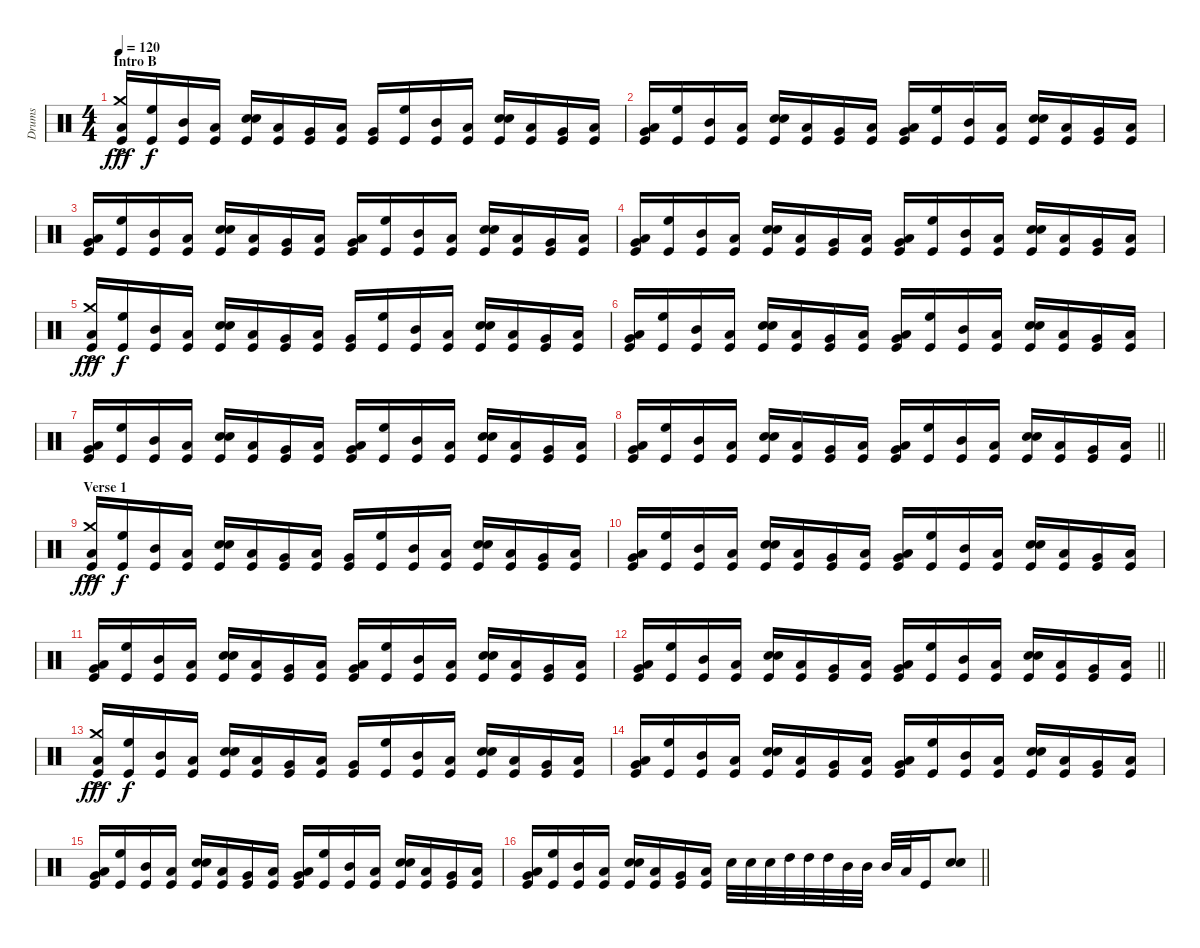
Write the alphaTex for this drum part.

\track ("Drums" "Drums") {instrument percussion}
\staff {score}
\articulation defaults
\ts (4 4)
\section ("" "Intro B")
\tempo 120
\clef neutral
\ks c
("Kick (hit)" "Crash medium (hit)"{ac} "Low Floor Tom (hit)").16{dy fff} ("Kick (hit)" "High Floor Tom (hit)").16{dy f} ("Kick (hit)" "Mid Tom (hit)").16 ("Kick (hit)" "Low Tom (hit)").16 ("Kick (hit)" "Snare (hit) 2" "Snare (hit) 2").16 ("Kick (hit)" "Low Floor Tom (hit)").16 ("Kick (hit)" "Very Low Tom (hit)").16 ("Kick (hit)" "Low Floor Tom (hit)").16 ("Kick (hit)" "Very Low Tom (hit)").16 ("Kick (hit)" "High Floor Tom (hit)").16 ("Kick (hit)" "Mid Tom (hit)").16 ("Kick (hit)" "Low Tom (hit)").16 ("Kick (hit)" "Snare (hit) 2" "Snare (hit) 2").16 ("Kick (hit)" "Low Floor Tom (hit)").16 ("Kick (hit)" "Very Low Tom (hit)").16 ("Kick (hit)" "Low Floor Tom (hit)").16 |
("Kick (hit)" "Very Low Tom (hit)" "Low Floor Tom (hit)").16 ("Kick (hit)" "High Floor Tom (hit)").16 ("Kick (hit)" "Mid Tom (hit)").16 ("Kick (hit)" "Low Tom (hit)").16 ("Kick (hit)" "Snare (hit) 2" "Snare (hit) 2").16 ("Kick (hit)" "Low Floor Tom (hit)").16 ("Kick (hit)" "Very Low Tom (hit)").16 ("Kick (hit)" "Low Floor Tom (hit)").16 ("Kick (hit)" "Very Low Tom (hit)" "Low Floor Tom (hit)").16 ("Kick (hit)" "High Floor Tom (hit)").16 ("Kick (hit)" "Mid Tom (hit)").16 ("Kick (hit)" "Low Tom (hit)").16 ("Kick (hit)" "Snare (hit) 2" "Snare (hit) 2").16 ("Kick (hit)" "Low Floor Tom (hit)").16 ("Kick (hit)" "Very Low Tom (hit)").16 ("Kick (hit)" "Low Floor Tom (hit)").16 |
("Kick (hit)" "Very Low Tom (hit)" "Low Floor Tom (hit)").16 ("Kick (hit)" "High Floor Tom (hit)").16 ("Kick (hit)" "Mid Tom (hit)").16 ("Kick (hit)" "Low Tom (hit)").16 ("Kick (hit)" "Snare (hit) 2" "Snare (hit) 2").16 ("Kick (hit)" "Low Floor Tom (hit)").16 ("Kick (hit)" "Very Low Tom (hit)").16 ("Kick (hit)" "Low Floor Tom (hit)").16 ("Kick (hit)" "Very Low Tom (hit)" "Low Floor Tom (hit)").16 ("Kick (hit)" "High Floor Tom (hit)").16 ("Kick (hit)" "Mid Tom (hit)").16 ("Kick (hit)" "Low Tom (hit)").16 ("Kick (hit)" "Snare (hit) 2" "Snare (hit) 2").16 ("Kick (hit)" "Low Floor Tom (hit)").16 ("Kick (hit)" "Very Low Tom (hit)").16 ("Kick (hit)" "Low Floor Tom (hit)").16 |
("Kick (hit)" "Very Low Tom (hit)" "Low Floor Tom (hit)").16 ("Kick (hit)" "High Floor Tom (hit)").16 ("Kick (hit)" "Mid Tom (hit)").16 ("Kick (hit)" "Low Tom (hit)").16 ("Kick (hit)" "Snare (hit) 2" "Snare (hit) 2").16 ("Kick (hit)" "Low Floor Tom (hit)").16 ("Kick (hit)" "Very Low Tom (hit)").16 ("Kick (hit)" "Low Floor Tom (hit)").16 ("Kick (hit)" "Very Low Tom (hit)" "Low Floor Tom (hit)").16 ("Kick (hit)" "High Floor Tom (hit)").16 ("Kick (hit)" "Mid Tom (hit)").16 ("Kick (hit)" "Low Tom (hit)").16 ("Kick (hit)" "Snare (hit) 2" "Snare (hit) 2").16 ("Kick (hit)" "Low Floor Tom (hit)").16 ("Kick (hit)" "Very Low Tom (hit)").16 ("Kick (hit)" "Low Floor Tom (hit)").16 |
("Kick (hit)" "Crash medium (hit)"{ac} "Low Floor Tom (hit)").16{dy fff} ("Kick (hit)" "High Floor Tom (hit)").16{dy f} ("Kick (hit)" "Mid Tom (hit)").16 ("Kick (hit)" "Low Tom (hit)").16 ("Kick (hit)" "Snare (hit) 2" "Snare (hit) 2").16 ("Kick (hit)" "Low Floor Tom (hit)").16 ("Kick (hit)" "Very Low Tom (hit)").16 ("Kick (hit)" "Low Floor Tom (hit)").16 ("Kick (hit)" "Very Low Tom (hit)").16 ("Kick (hit)" "High Floor Tom (hit)").16 ("Kick (hit)" "Mid Tom (hit)").16 ("Kick (hit)" "Low Tom (hit)").16 ("Kick (hit)" "Snare (hit) 2" "Snare (hit) 2").16 ("Kick (hit)" "Low Floor Tom (hit)").16 ("Kick (hit)" "Very Low Tom (hit)").16 ("Kick (hit)" "Low Floor Tom (hit)").16 |
("Kick (hit)" "Very Low Tom (hit)" "Low Floor Tom (hit)").16 ("Kick (hit)" "High Floor Tom (hit)").16 ("Kick (hit)" "Mid Tom (hit)").16 ("Kick (hit)" "Low Tom (hit)").16 ("Kick (hit)" "Snare (hit) 2" "Snare (hit) 2").16 ("Kick (hit)" "Low Floor Tom (hit)").16 ("Kick (hit)" "Very Low Tom (hit)").16 ("Kick (hit)" "Low Floor Tom (hit)").16 ("Kick (hit)" "Very Low Tom (hit)" "Low Floor Tom (hit)").16 ("Kick (hit)" "High Floor Tom (hit)").16 ("Kick (hit)" "Mid Tom (hit)").16 ("Kick (hit)" "Low Tom (hit)").16 ("Kick (hit)" "Snare (hit) 2" "Snare (hit) 2").16 ("Kick (hit)" "Low Floor Tom (hit)").16 ("Kick (hit)" "Very Low Tom (hit)").16 ("Kick (hit)" "Low Floor Tom (hit)").16 |
("Kick (hit)" "Very Low Tom (hit)" "Low Floor Tom (hit)").16 ("Kick (hit)" "High Floor Tom (hit)").16 ("Kick (hit)" "Mid Tom (hit)").16 ("Kick (hit)" "Low Tom (hit)").16 ("Kick (hit)" "Snare (hit) 2" "Snare (hit) 2").16 ("Kick (hit)" "Low Floor Tom (hit)").16 ("Kick (hit)" "Very Low Tom (hit)").16 ("Kick (hit)" "Low Floor Tom (hit)").16 ("Kick (hit)" "Very Low Tom (hit)" "Low Floor Tom (hit)").16 ("Kick (hit)" "High Floor Tom (hit)").16 ("Kick (hit)" "Mid Tom (hit)").16 ("Kick (hit)" "Low Tom (hit)").16 ("Kick (hit)" "Snare (hit) 2" "Snare (hit) 2").16 ("Kick (hit)" "Low Floor Tom (hit)").16 ("Kick (hit)" "Very Low Tom (hit)").16 ("Kick (hit)" "Low Floor Tom (hit)").16 |
\barLineRight lightlight
("Kick (hit)" "Very Low Tom (hit)" "Low Floor Tom (hit)").16 ("Kick (hit)" "High Floor Tom (hit)").16 ("Kick (hit)" "Mid Tom (hit)").16 ("Kick (hit)" "Low Tom (hit)").16 ("Kick (hit)" "Snare (hit) 2" "Snare (hit) 2").16 ("Kick (hit)" "Low Floor Tom (hit)").16 ("Kick (hit)" "Very Low Tom (hit)").16 ("Kick (hit)" "Low Floor Tom (hit)").16 ("Kick (hit)" "Very Low Tom (hit)" "Low Floor Tom (hit)").16 ("Kick (hit)" "High Floor Tom (hit)").16 ("Kick (hit)" "Mid Tom (hit)").16 ("Kick (hit)" "Low Tom (hit)").16 ("Kick (hit)" "Snare (hit) 2" "Snare (hit) 2").16 ("Kick (hit)" "Low Floor Tom (hit)").16 ("Kick (hit)" "Very Low Tom (hit)").16 ("Kick (hit)" "Low Floor Tom (hit)").16 |
\section ("" "Verse 1")
("Kick (hit)" "Crash medium (hit)"{ac} "Low Floor Tom (hit)").16{dy fff} ("Kick (hit)" "High Floor Tom (hit)").16{dy f} ("Kick (hit)" "Mid Tom (hit)").16 ("Kick (hit)" "Low Tom (hit)").16 ("Kick (hit)" "Snare (hit) 2" "Snare (hit) 2").16 ("Kick (hit)" "Low Floor Tom (hit)").16 ("Kick (hit)" "Very Low Tom (hit)").16 ("Kick (hit)" "Low Floor Tom (hit)").16 ("Kick (hit)" "Very Low Tom (hit)").16 ("Kick (hit)" "High Floor Tom (hit)").16 ("Kick (hit)" "Mid Tom (hit)").16 ("Kick (hit)" "Low Tom (hit)").16 ("Kick (hit)" "Snare (hit) 2" "Snare (hit) 2").16 ("Kick (hit)" "Low Floor Tom (hit)").16 ("Kick (hit)" "Very Low Tom (hit)").16 ("Kick (hit)" "Low Floor Tom (hit)").16 |
("Kick (hit)" "Very Low Tom (hit)" "Low Floor Tom (hit)").16 ("Kick (hit)" "High Floor Tom (hit)").16 ("Kick (hit)" "Mid Tom (hit)").16 ("Kick (hit)" "Low Tom (hit)").16 ("Kick (hit)" "Snare (hit) 2" "Snare (hit) 2").16 ("Kick (hit)" "Low Floor Tom (hit)").16 ("Kick (hit)" "Very Low Tom (hit)").16 ("Kick (hit)" "Low Floor Tom (hit)").16 ("Kick (hit)" "Very Low Tom (hit)" "Low Floor Tom (hit)").16 ("Kick (hit)" "High Floor Tom (hit)").16 ("Kick (hit)" "Mid Tom (hit)").16 ("Kick (hit)" "Low Tom (hit)").16 ("Kick (hit)" "Snare (hit) 2" "Snare (hit) 2").16 ("Kick (hit)" "Low Floor Tom (hit)").16 ("Kick (hit)" "Very Low Tom (hit)").16 ("Kick (hit)" "Low Floor Tom (hit)").16 |
("Kick (hit)" "Very Low Tom (hit)" "Low Floor Tom (hit)").16 ("Kick (hit)" "High Floor Tom (hit)").16 ("Kick (hit)" "Mid Tom (hit)").16 ("Kick (hit)" "Low Tom (hit)").16 ("Kick (hit)" "Snare (hit) 2" "Snare (hit) 2").16 ("Kick (hit)" "Low Floor Tom (hit)").16 ("Kick (hit)" "Very Low Tom (hit)").16 ("Kick (hit)" "Low Floor Tom (hit)").16 ("Kick (hit)" "Very Low Tom (hit)" "Low Floor Tom (hit)").16 ("Kick (hit)" "High Floor Tom (hit)").16 ("Kick (hit)" "Mid Tom (hit)").16 ("Kick (hit)" "Low Tom (hit)").16 ("Kick (hit)" "Snare (hit) 2" "Snare (hit) 2").16 ("Kick (hit)" "Low Floor Tom (hit)").16 ("Kick (hit)" "Very Low Tom (hit)").16 ("Kick (hit)" "Low Floor Tom (hit)").16 |
\barLineRight lightlight
("Kick (hit)" "Very Low Tom (hit)" "Low Floor Tom (hit)").16 ("Kick (hit)" "High Floor Tom (hit)").16 ("Kick (hit)" "Mid Tom (hit)").16 ("Kick (hit)" "Low Tom (hit)").16 ("Kick (hit)" "Snare (hit) 2" "Snare (hit) 2").16 ("Kick (hit)" "Low Floor Tom (hit)").16 ("Kick (hit)" "Very Low Tom (hit)").16 ("Kick (hit)" "Low Floor Tom (hit)").16 ("Kick (hit)" "Very Low Tom (hit)" "Low Floor Tom (hit)").16 ("Kick (hit)" "High Floor Tom (hit)").16 ("Kick (hit)" "Mid Tom (hit)").16 ("Kick (hit)" "Low Tom (hit)").16 ("Kick (hit)" "Snare (hit) 2" "Snare (hit) 2").16 ("Kick (hit)" "Low Floor Tom (hit)").16 ("Kick (hit)" "Very Low Tom (hit)").16 ("Kick (hit)" "Low Floor Tom (hit)").16 |
("Kick (hit)" "Crash medium (hit)"{ac} "Low Floor Tom (hit)").16{dy fff} ("Kick (hit)" "High Floor Tom (hit)").16{dy f} ("Kick (hit)" "Mid Tom (hit)").16 ("Kick (hit)" "Low Tom (hit)").16 ("Kick (hit)" "Snare (hit) 2" "Snare (hit) 2").16 ("Kick (hit)" "Low Floor Tom (hit)").16 ("Kick (hit)" "Very Low Tom (hit)").16 ("Kick (hit)" "Low Floor Tom (hit)").16 ("Kick (hit)" "Very Low Tom (hit)").16 ("Kick (hit)" "High Floor Tom (hit)").16 ("Kick (hit)" "Mid Tom (hit)").16 ("Kick (hit)" "Low Tom (hit)").16 ("Kick (hit)" "Snare (hit) 2" "Snare (hit) 2").16 ("Kick (hit)" "Low Floor Tom (hit)").16 ("Kick (hit)" "Very Low Tom (hit)").16 ("Kick (hit)" "Low Floor Tom (hit)").16 |
("Kick (hit)" "Very Low Tom (hit)" "Low Floor Tom (hit)").16 ("Kick (hit)" "High Floor Tom (hit)").16 ("Kick (hit)" "Mid Tom (hit)").16 ("Kick (hit)" "Low Tom (hit)").16 ("Kick (hit)" "Snare (hit) 2" "Snare (hit) 2").16 ("Kick (hit)" "Low Floor Tom (hit)").16 ("Kick (hit)" "Very Low Tom (hit)").16 ("Kick (hit)" "Low Floor Tom (hit)").16 ("Kick (hit)" "Very Low Tom (hit)" "Low Floor Tom (hit)").16 ("Kick (hit)" "High Floor Tom (hit)").16 ("Kick (hit)" "Mid Tom (hit)").16 ("Kick (hit)" "Low Tom (hit)").16 ("Kick (hit)" "Snare (hit) 2" "Snare (hit) 2").16 ("Kick (hit)" "Low Floor Tom (hit)").16 ("Kick (hit)" "Very Low Tom (hit)").16 ("Kick (hit)" "Low Floor Tom (hit)").16 |
("Kick (hit)" "Very Low Tom (hit)" "Low Floor Tom (hit)").16 ("Kick (hit)" "High Floor Tom (hit)").16 ("Kick (hit)" "Mid Tom (hit)").16 ("Kick (hit)" "Low Tom (hit)").16 ("Kick (hit)" "Snare (hit) 2" "Snare (hit) 2").16 ("Kick (hit)" "Low Floor Tom (hit)").16 ("Kick (hit)" "Very Low Tom (hit)").16 ("Kick (hit)" "Low Floor Tom (hit)").16 ("Kick (hit)" "Very Low Tom (hit)" "Low Floor Tom (hit)").16 ("Kick (hit)" "High Floor Tom (hit)").16 ("Kick (hit)" "Mid Tom (hit)").16 ("Kick (hit)" "Low Tom (hit)").16 ("Kick (hit)" "Snare (hit) 2" "Snare (hit) 2").16 ("Kick (hit)" "Low Floor Tom (hit)").16 ("Kick (hit)" "Very Low Tom (hit)").16 ("Kick (hit)" "Low Floor Tom (hit)").16 |
\barLineRight lightlight
("Kick (hit)" "Very Low Tom (hit)" "Low Floor Tom (hit)").16 ("Kick (hit)" "High Floor Tom (hit)").16 ("Kick (hit)" "Mid Tom (hit)").16 ("Kick (hit)" "Low Tom (hit)").16 ("Kick (hit)" "Snare (hit) 2" "Snare (hit) 2").16 ("Kick (hit)" "Low Floor Tom (hit)").16 ("Kick (hit)" "Very Low Tom (hit)").16 ("Kick (hit)" "Low Floor Tom (hit)").16 "Snare (hit) 2".32 "Snare (hit) 2".32 "Snare (hit) 2".32 "High Tom (hit)".32 "High Tom (hit)".32 "High Tom (hit)".32 "Mid Tom (hit)".32 "Mid Tom (hit)".32 "Mid Tom (hit)".32 "Low Tom (hit)".32 "Kick (hit)".16 ("Snare (hit) 2" "Snare (hit) 2").8
